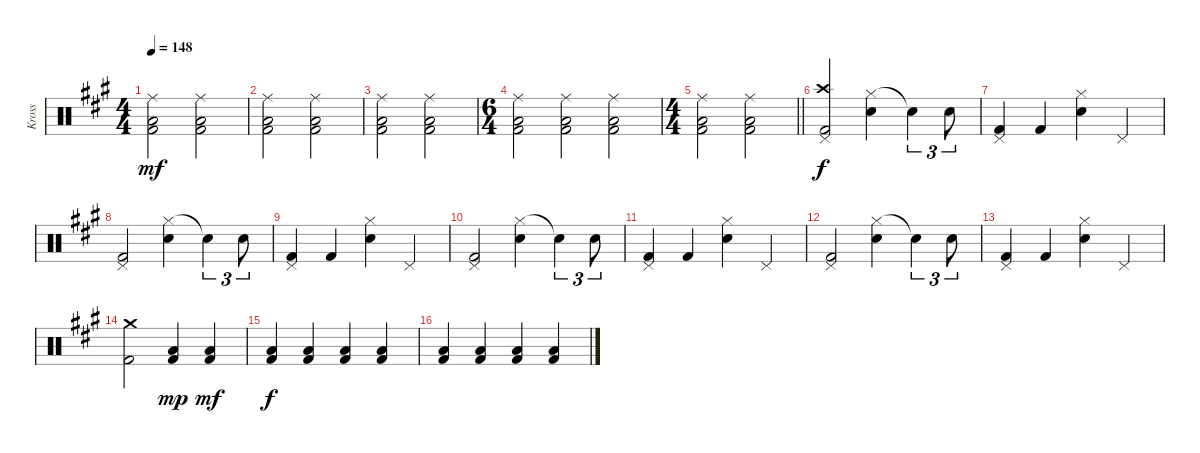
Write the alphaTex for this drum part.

\track ("Kross" "Kross") {instrument percussion}
\staff {score}
\articulation defaults
\ts (4 4)
\tempo 148
\clef neutral
\ks a
("Ride (middle)" "Low Floor Tom (hit)" "Kick (hit) 2").2{dy mf} ("Ride (middle)" "Low Floor Tom (hit)" "Kick (hit) 2").2 |
("Ride (middle)" "Low Floor Tom (hit)" "Kick (hit) 2").2 ("Ride (middle)" "Low Floor Tom (hit)" "Kick (hit) 2").2 |
("Ride (middle)" "Low Floor Tom (hit)" "Kick (hit) 2").2 ("Ride (middle)" "Low Floor Tom (hit)" "Kick (hit) 2").2 |
\ts (6 4)
("Ride (middle)" "Low Floor Tom (hit)" "Kick (hit) 2").2 ("Ride (middle)" "Low Floor Tom (hit)" "Kick (hit) 2").2 ("Ride (middle)" "Low Floor Tom (hit)" "Kick (hit) 2").2 |
\ts (4 4)
\barLineRight lightlight
("Ride (middle)" "Low Floor Tom (hit)" "Kick (hit) 2").2 ("Ride (middle)" "Low Floor Tom (hit)" "Kick (hit) 2").2 |
("Crash high (hit)" "Pedal Hi-Hat (hit)" "Kick (hit) 2").2{dy f} ("Hi-Hat (closed)" "Electric Snare (hit)").4 "Electric Snare (hit)"{t}.4{tu (3 2)} "Electric Snare (hit)".8{tu (3 2)} |
("Pedal Hi-Hat (hit)" "Kick (hit) 2").4 "Kick (hit) 2".4 ("Hi-Hat (closed)" "Electric Snare (hit)").4 "Pedal Hi-Hat (hit)".4 |
("Pedal Hi-Hat (hit)" "Kick (hit) 2").2 ("Hi-Hat (closed)" "Electric Snare (hit)").4 "Electric Snare (hit)"{t}.4{tu (3 2)} "Electric Snare (hit)".8{tu (3 2)} |
("Pedal Hi-Hat (hit)" "Kick (hit) 2").4 "Kick (hit) 2".4 ("Hi-Hat (closed)" "Electric Snare (hit)").4 "Pedal Hi-Hat (hit)".4 |
("Pedal Hi-Hat (hit)" "Kick (hit) 2").2 ("Hi-Hat (closed)" "Electric Snare (hit)").4 "Electric Snare (hit)"{t}.4{tu (3 2)} "Electric Snare (hit)".8{tu (3 2)} |
("Pedal Hi-Hat (hit)" "Kick (hit) 2").4 "Kick (hit) 2".4 ("Hi-Hat (closed)" "Electric Snare (hit)").4 "Pedal Hi-Hat (hit)".4 |
("Pedal Hi-Hat (hit)" "Kick (hit) 2").2 ("Hi-Hat (closed)" "Electric Snare (hit)").4 "Electric Snare (hit)"{t}.4{tu (3 2)} "Electric Snare (hit)".8{tu (3 2)} |
("Pedal Hi-Hat (hit)" "Kick (hit) 2").4 "Kick (hit) 2".4 ("Hi-Hat (closed)" "Electric Snare (hit)").4 "Pedal Hi-Hat (hit)".4 |
("Crash medium (hit)" "Kick (hit) 2").2 ("Low Floor Tom (hit)" "Kick (hit) 2").4{dy mp} ("Low Floor Tom (hit)" "Kick (hit) 2").4{dy mf} |
("Low Floor Tom (hit)" "Kick (hit) 2").4{dy f} ("Low Floor Tom (hit)" "Kick (hit) 2").4 ("Low Floor Tom (hit)" "Kick (hit) 2").4 ("Low Floor Tom (hit)" "Kick (hit) 2").4 |
("Low Floor Tom (hit)" "Kick (hit) 2").4 ("Low Floor Tom (hit)" "Kick (hit) 2").4 ("Low Floor Tom (hit)" "Kick (hit) 2").4 ("Low Floor Tom (hit)" "Kick (hit) 2").4
